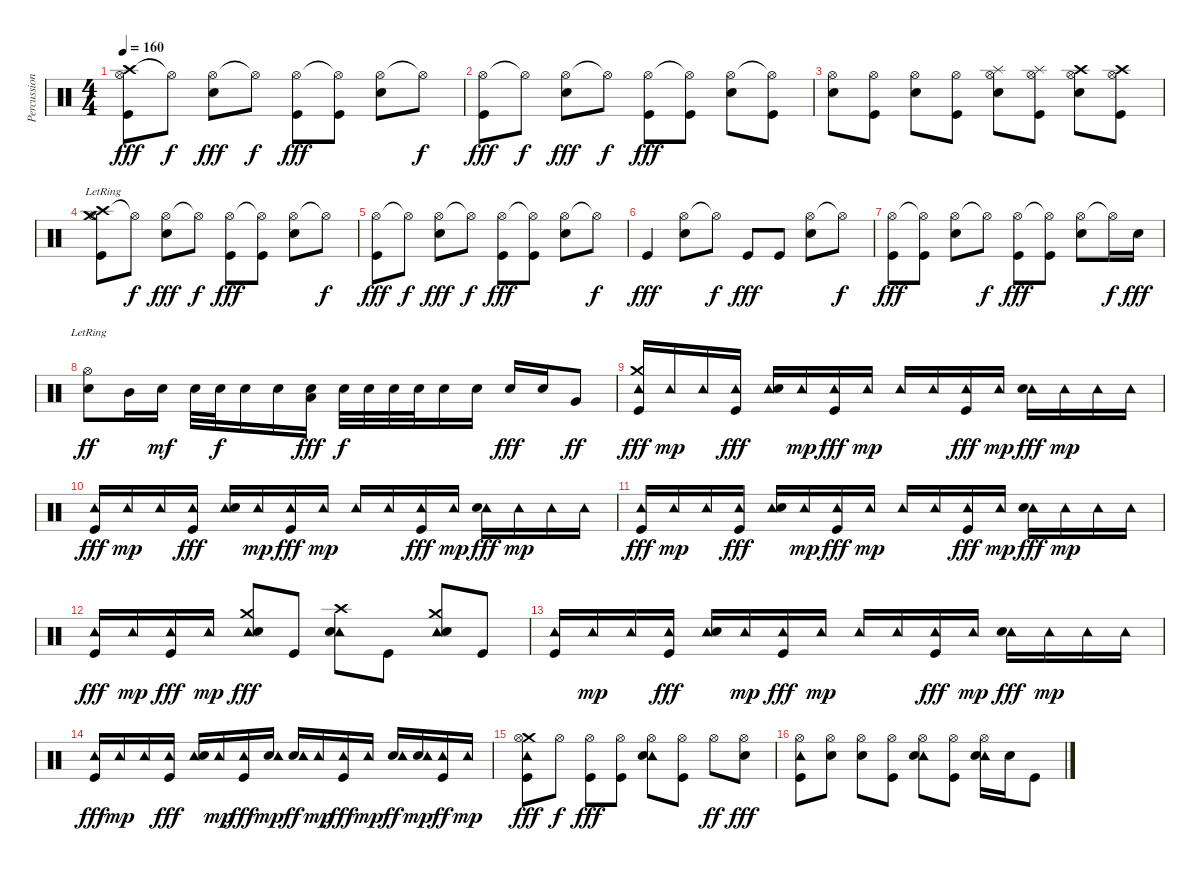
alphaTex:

\track ("Percussion" "Percussion") {instrument percussion}
\staff {score}
\articulation defaults
\ts (4 4)
\tempo 160
\clef neutral
\ks c
("Crash high (hit)" "Hi-Hat (open)" "Kick (hit)").8{dy fff} "Hi-Hat (open)"{t}.8{dy f} ("Hi-Hat (open)" "Snare (hit) 2").8{dy fff} "Hi-Hat (open)"{t}.8{dy f} ("Hi-Hat (open)" "Kick (hit)").8{dy fff} ("Hi-Hat (open)"{t} "Kick (hit)").8 ("Hi-Hat (open)" "Snare (hit) 2").8 "Hi-Hat (open)"{t}.8{dy f} |
("Hi-Hat (open)" "Kick (hit)").8{dy fff} "Hi-Hat (open)"{t}.8{dy f} ("Hi-Hat (open)" "Snare (hit) 2").8{dy fff} "Hi-Hat (open)"{t}.8{dy f} ("Hi-Hat (open)" "Kick (hit)").8{dy fff} ("Hi-Hat (open)"{t} "Kick (hit)").8 ("Hi-Hat (open)" "Snare (hit) 2").8 ("Hi-Hat (open)"{t} "Kick (hit)").8 |
("Hi-Hat (open)" "Snare (hit) 2").8 ("Hi-Hat (open)" "Kick (hit)").8 ("Hi-Hat (open)" "Snare (hit) 2").8 ("Hi-Hat (open)" "Kick (hit)").8 ("Splash (hit)" "Hi-Hat (open)" "Snare (hit) 2").8 ("Splash (hit)" "Hi-Hat (open)" "Kick (hit)").8 ("Crash high (hit)" "Hi-Hat (open)" "Snare (hit) 2").8 ("Crash high (hit)" "Hi-Hat (open)" "Kick (hit)").8 |
("Crash high (hit)"{lr} "Crash medium (hit)" "Hi-Hat (open)" "Kick (hit)").8 "Hi-Hat (open)"{t}.8{dy f} ("Hi-Hat (open)" "Snare (hit) 2").8{dy fff} "Hi-Hat (open)"{t}.8{dy f} ("Hi-Hat (open)" "Kick (hit)").8{dy fff} ("Hi-Hat (open)"{t} "Kick (hit)").8 ("Hi-Hat (open)" "Snare (hit) 2").8 "Hi-Hat (open)"{t}.8{dy f} |
("Hi-Hat (open)" "Kick (hit)").8{dy fff} "Hi-Hat (open)"{t}.8{dy f} ("Hi-Hat (open)" "Snare (hit) 2").8{dy fff} "Hi-Hat (open)"{t}.8{dy f} ("Hi-Hat (open)" "Kick (hit)").8{dy fff} ("Hi-Hat (open)"{t} "Kick (hit)").8 ("Hi-Hat (open)" "Snare (hit) 2").8 "Hi-Hat (open)"{t}.8{dy f} |
"Kick (hit)".4{dy fff} ("Hi-Hat (open)" "Snare (hit) 2").8 "Hi-Hat (open)"{t}.8{dy f} "Kick (hit)".8{dy fff} "Kick (hit)".8 ("Hi-Hat (open)" "Snare (hit) 2").8 "Hi-Hat (open)"{t}.8{dy f} |
("Hi-Hat (open)" "Kick (hit)").8{dy fff} ("Hi-Hat (open)"{t} "Kick (hit)").8 ("Hi-Hat (open)" "Snare (hit) 2").8 "Hi-Hat (open)"{t}.8{dy f} ("Hi-Hat (open)" "Kick (hit)").8{dy fff} ("Hi-Hat (open)"{t} "Kick (hit)").8 ("Hi-Hat (open)" "Snare (hit) 2").8 "Hi-Hat (open)"{t}.16{dy f} "Snare (hit) 2".16{dy fff} |
("Snare (hit) 2" "Hi-Hat (open)"{lr}).8{dy ff} "Mid Tom (hit)".16 "Snare (hit) 2".16{dy mf} "Snare (hit) 2".32 "Snare (hit) 2".32{dy f} "Snare (hit) 2".16 "Snare (hit) 2".16 ("Snare (hit) 2" "Low Tom (hit)").16{dy fff} "Snare (hit) 2".32{dy f} "Snare (hit) 2".32 "Snare (hit) 2".32 "Snare (hit) 2".32 "Snare (hit) 2".16 "Snare (hit) 2".16 "Snare (hit) 2".16{dy fff} "Snare (hit) 2".16 "Very Low Tom (hit)".8{dy ff} |
("Crash medium (hit)" "Tambourine (hit)" "Kick (hit)").16{dy fff} "Tambourine (hit)".16{dy mp} "Tambourine (hit)".16 ("Tambourine (hit)" "Kick (hit)").16{dy fff} ("Tambourine (hit)" "Snare (hit) 2").16 "Tambourine (hit)".16{dy mp} ("Tambourine (hit)" "Kick (hit)").16{dy fff} "Tambourine (hit)".16{dy mp} "Tambourine (hit)".16 "Tambourine (hit)".16 ("Tambourine (hit)" "Kick (hit)").16{dy fff} "Tambourine (hit)".16{dy mp} ("Tambourine (hit)" "Snare (hit) 2").16{dy fff} "Tambourine (hit)".16{dy mp} "Tambourine (hit)".16 "Tambourine (hit)".16 |
("Tambourine (hit)" "Kick (hit)").16{dy fff} "Tambourine (hit)".16{dy mp} "Tambourine (hit)".16 ("Tambourine (hit)" "Kick (hit)").16{dy fff} ("Tambourine (hit)" "Snare (hit) 2").16 "Tambourine (hit)".16{dy mp} ("Tambourine (hit)" "Kick (hit)").16{dy fff} "Tambourine (hit)".16{dy mp} "Tambourine (hit)".16 "Tambourine (hit)".16 ("Tambourine (hit)" "Kick (hit)").16{dy fff} "Tambourine (hit)".16{dy mp} ("Tambourine (hit)" "Snare (hit) 2").16{dy fff} "Tambourine (hit)".16{dy mp} "Tambourine (hit)".16 "Tambourine (hit)".16 |
("Tambourine (hit)" "Kick (hit)").16{dy fff} "Tambourine (hit)".16{dy mp} "Tambourine (hit)".16 ("Tambourine (hit)" "Kick (hit)").16{dy fff} ("Tambourine (hit)" "Snare (hit) 2").16 "Tambourine (hit)".16{dy mp} ("Tambourine (hit)" "Kick (hit)").16{dy fff} "Tambourine (hit)".16{dy mp} "Tambourine (hit)".16 "Tambourine (hit)".16 ("Tambourine (hit)" "Kick (hit)").16{dy fff} "Tambourine (hit)".16{dy mp} ("Tambourine (hit)" "Snare (hit) 2").16{dy fff} "Tambourine (hit)".16{dy mp} "Tambourine (hit)".16 "Tambourine (hit)".16 |
("Tambourine (hit)" "Kick (hit)").16{dy fff} "Tambourine (hit)".16{dy mp} ("Tambourine (hit)" "Kick (hit)").16{dy fff} "Tambourine (hit)".16{dy mp} ("Crash medium (hit)" "Tambourine (hit)" "Snare (hit) 2").8{dy fff} "Kick (hit)".8 ("Crash high (hit)" "Tambourine (hit)" "Snare (hit) 2").8 "Kick (hit)".8 ("Crash medium (hit)" "Tambourine (hit)" "Snare (hit) 2").8 "Kick (hit)".8 |
("Tambourine (hit)" "Kick (hit)").16 "Tambourine (hit)".16{dy mp} "Tambourine (hit)".16 ("Tambourine (hit)" "Kick (hit)").16{dy fff} ("Tambourine (hit)" "Snare (hit) 2").16 "Tambourine (hit)".16{dy mp} ("Tambourine (hit)" "Kick (hit)").16{dy fff} "Tambourine (hit)".16{dy mp} "Tambourine (hit)".16 "Tambourine (hit)".16 ("Tambourine (hit)" "Kick (hit)").16{dy fff} "Tambourine (hit)".16{dy mp} ("Tambourine (hit)" "Snare (hit) 2").16{dy fff} "Tambourine (hit)".16{dy mp} "Tambourine (hit)".16 "Tambourine (hit)".16 |
("Tambourine (hit)" "Kick (hit)").16{dy fff} "Tambourine (hit)".16{dy mp} "Tambourine (hit)".16 ("Tambourine (hit)" "Kick (hit)").16{dy fff} ("Tambourine (hit)" "Snare (hit) 2").16 "Tambourine (hit)".16{dy mp} ("Tambourine (hit)" "Kick (hit)").16{dy fff} ("Snare (hit) 2" "Tambourine (hit)").16{dy mp} ("Snare (hit) 2" "Tambourine (hit)").16{dy ff} "Tambourine (hit)".16{dy mp} ("Tambourine (hit)" "Kick (hit)").16{dy fff} "Tambourine (hit)".16{dy mp} ("Snare (hit) 2" "Tambourine (hit)").16{dy ff} ("Snare (hit) 2" "Tambourine (hit)").16{dy mp} ("Tambourine (hit)" "Kick (hit)").16{dy ff} "Tambourine (hit)".16{dy mp} |
("Crash medium (hit)" "Tambourine (hit)" "Hi-Hat (open)" "Kick (hit)").8{dy fff} "Hi-Hat (open)".8{dy f} ("Hi-Hat (open)" "Kick (hit)").8{dy fff} ("Hi-Hat (open)" "Kick (hit)").8 ("Tambourine (hit)" "Hi-Hat (open)" "Snare (hit) 2").8 ("Hi-Hat (open)" "Kick (hit)").8 "Hi-Hat (open)".8{dy ff} ("Hi-Hat (open)" "Snare (hit) 2").8{dy fff} |
("Tambourine (hit)" "Hi-Hat (open)" "Kick (hit)").8 ("Hi-Hat (open)" "Snare (hit) 2").8 ("Hi-Hat (open)" "Snare (hit) 2").8 ("Hi-Hat (open)" "Kick (hit)").8 ("Tambourine (hit)" "Hi-Hat (open)" "Snare (hit) 2").8 ("Hi-Hat (open)" "Kick (hit)").8 ("Tambourine (hit)" "Hi-Hat (open)" "Snare (hit) 2").16 "Snare (hit) 2".16 "Kick (hit)".8
